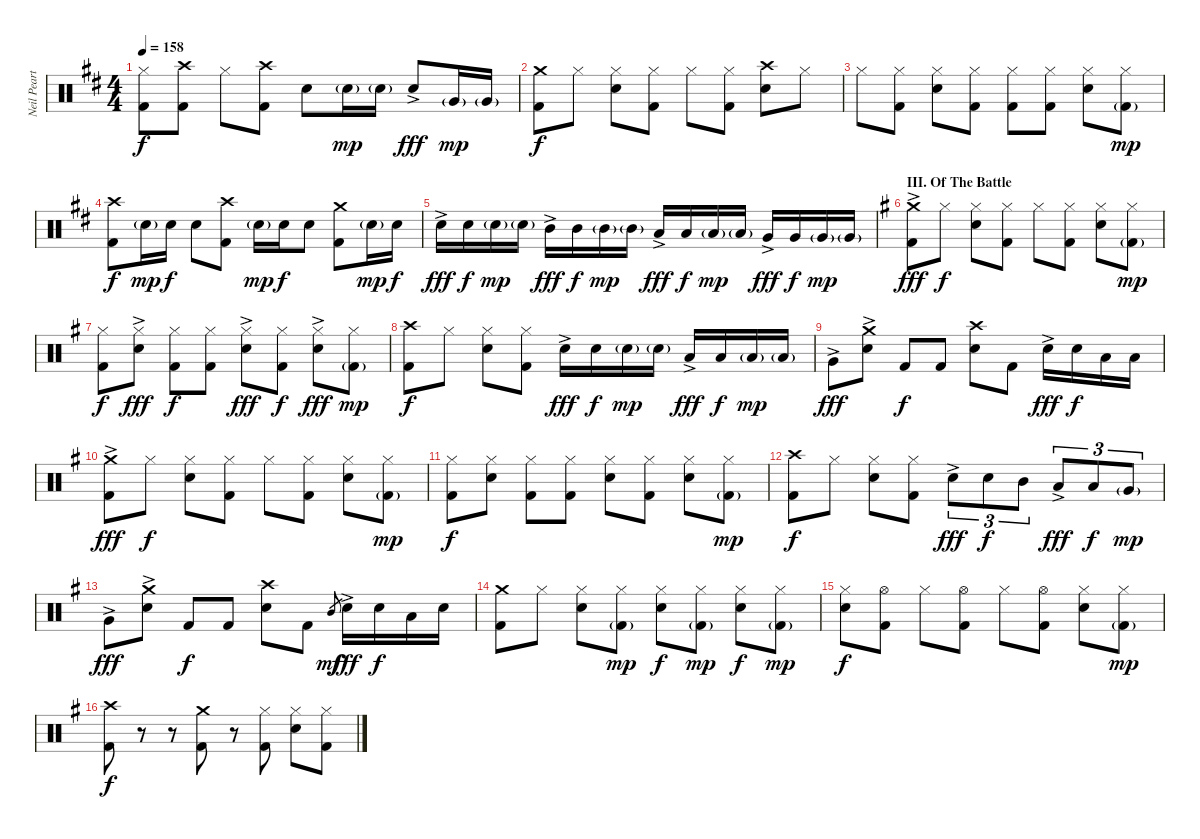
\track ("Neil Peart (drums)" "Neil Peart") {instrument percussion}
\staff {score}
\articulation defaults
\ts (4 4)
\tempo 158
\clef neutral
\ks d
("Hi-Hat (closed)" "Kick (hit) 2").8{dy f} ("Crash high (hit)" "Kick (hit) 2").8 "Hi-Hat (closed)".8 ("Crash high (hit)" "Kick (hit) 2").8 "Electric Snare (hit)".8 "Electric Snare (hit)"{g}.16{dy mp} "Electric Snare (hit)"{g}.16 "Electric Snare (hit)"{ac}.8{dy fff} "Very Low Tom (hit)"{g}.16{dy mp} "Very Low Tom (hit)"{g}.16 |
("Crash medium (hit)" "Kick (hit) 2").8{dy f} "Hi-Hat (closed)".8 ("Hi-Hat (closed)" "Electric Snare (hit)").8 ("Hi-Hat (closed)" "Kick (hit) 2").8 "Hi-Hat (closed)".8 ("Hi-Hat (closed)" "Kick (hit) 2").8 ("Crash high (hit)" "Electric Snare (hit)").8 "Hi-Hat (closed)".8 |
"Hi-Hat (closed)".8 ("Hi-Hat (closed)" "Kick (hit) 2").8 ("Hi-Hat (closed)" "Electric Snare (hit)").8 ("Hi-Hat (closed)" "Kick (hit) 2").8 ("Hi-Hat (closed)" "Kick (hit) 2").8 ("Hi-Hat (closed)" "Kick (hit) 2").8 ("Hi-Hat (closed)" "Electric Snare (hit)").8 ("Hi-Hat (closed)" "Kick (hit) 2"{g}).8{dy mp} |
("Crash high (hit)" "Kick (hit) 2").8{dy f} "Electric Snare (hit)"{g}.16{dy mp} "Electric Snare (hit)".16{dy f} "Electric Snare (hit)".8 ("Crash high (hit)" "Kick (hit) 2").8 "Electric Snare (hit)"{g}.16{dy mp} "Electric Snare (hit)".16{dy f} "Electric Snare (hit)".8 ("Crash medium (hit)" "Kick (hit) 2").8 "Electric Snare (hit)"{g}.16{dy mp} "Electric Snare (hit)".16{dy f} |
"Electric Snare (hit)"{ac}.16{dy fff} "Electric Snare (hit)".16{dy f} "Electric Snare (hit)"{g}.16{dy mp} "Electric Snare (hit)"{g}.16 "Mid Tom (hit)"{ac}.16{dy fff} "Mid Tom (hit)".16{dy f} "Mid Tom (hit)"{g}.16{dy mp} "Mid Tom (hit)"{g}.16 "Low Tom (hit)"{ac}.16{dy fff} "Low Tom (hit)".16{dy f} "Low Tom (hit)"{g}.16{dy mp} "Low Tom (hit)"{g}.16 "Very Low Tom (hit)"{ac}.16{dy fff} "Very Low Tom (hit)".16{dy f} "Very Low Tom (hit)"{g}.16{dy mp} "Very Low Tom (hit)"{g}.16 |
\section ("" "III. Of The Battle")
\ks eminor
("Crash medium (hit)"{ac} "Kick (hit) 2").8{dy fff} "Hi-Hat (closed)".8{dy f} ("Hi-Hat (closed)" "Electric Snare (hit)").8 ("Hi-Hat (closed)" "Kick (hit) 2").8 "Hi-Hat (closed)".8 ("Hi-Hat (closed)" "Kick (hit) 2").8 ("Hi-Hat (closed)" "Electric Snare (hit)").8 ("Hi-Hat (closed)" "Kick (hit) 2"{g}).8{dy mp} |
("Hi-Hat (closed)" "Kick (hit) 2").8{dy f} ("Hi-Hat (closed)" "Electric Snare (hit)"{ac}).8{dy fff} ("Hi-Hat (closed)" "Kick (hit) 2").8{dy f} ("Hi-Hat (closed)" "Kick (hit) 2").8 ("Hi-Hat (closed)" "Electric Snare (hit)"{ac}).8{dy fff} ("Hi-Hat (closed)" "Kick (hit) 2").8{dy f} ("Hi-Hat (closed)" "Electric Snare (hit)"{ac}).8{dy fff} ("Hi-Hat (closed)" "Kick (hit) 2"{g}).8{dy mp} |
("Crash high (hit)" "Kick (hit) 2").8{dy f} "Hi-Hat (closed)".8 ("Hi-Hat (closed)" "Electric Snare (hit)").8 ("Hi-Hat (closed)" "Kick (hit) 2").8 "Electric Snare (hit)"{ac}.16{dy fff} "Electric Snare (hit)".16{dy f} "Electric Snare (hit)"{g}.16{dy mp} "Electric Snare (hit)"{g}.16 "Low Tom (hit)"{ac}.16{dy fff} "Low Tom (hit)".16{dy f} "Low Tom (hit)"{g}.16{dy mp} "Low Tom (hit)"{g}.16 |
"Very Low Tom (hit)"{ac}.8{dy fff} ("Crash medium (hit)" "Electric Snare (hit)"{ac}).8 "Kick (hit) 2".8{dy f} "Kick (hit) 2".8 ("Crash high (hit)" "Electric Snare (hit)").8 "Kick (hit) 2".8 "Electric Snare (hit)"{ac}.16{dy fff} "Electric Snare (hit)".16{dy f} "Low Tom (hit)".16 "Low Tom (hit)".16 |
("Crash medium (hit)"{ac} "Kick (hit) 2").8{dy fff} "Hi-Hat (closed)".8{dy f} ("Hi-Hat (closed)" "Electric Snare (hit)").8 ("Hi-Hat (closed)" "Kick (hit) 2").8 "Hi-Hat (closed)".8 ("Hi-Hat (closed)" "Kick (hit) 2").8 ("Hi-Hat (closed)" "Electric Snare (hit)").8 ("Hi-Hat (closed)" "Kick (hit) 2"{g}).8{dy mp} |
("Hi-Hat (closed)" "Kick (hit) 2").8{dy f} ("Hi-Hat (closed)" "Electric Snare (hit)").8 ("Hi-Hat (closed)" "Kick (hit) 2").8 ("Hi-Hat (closed)" "Kick (hit) 2").8 ("Hi-Hat (closed)" "Electric Snare (hit)").8 ("Hi-Hat (closed)" "Kick (hit) 2").8 ("Hi-Hat (closed)" "Electric Snare (hit)").8 ("Hi-Hat (closed)" "Kick (hit) 2"{g}).8{dy mp} |
("Crash high (hit)" "Kick (hit) 2").8{dy f} "Hi-Hat (closed)".8 ("Hi-Hat (closed)" "Electric Snare (hit)").8 ("Hi-Hat (closed)" "Kick (hit) 2").8 "Electric Snare (hit)"{ac}.8{tu (3 2) dy fff} "Electric Snare (hit)".8{tu (3 2) dy f} "Mid Tom (hit)".8{tu (3 2)} "Low Tom (hit)"{ac}.8{tu (3 2) dy fff} "Low Tom (hit)".8{tu (3 2) dy f} "Very Low Tom (hit)"{g}.8{tu (3 2) dy mp} |
"Very Low Tom (hit)"{ac}.8{dy fff} ("Crash medium (hit)" "Electric Snare (hit)"{ac}).8 "Kick (hit) 2".8{dy f} "Kick (hit) 2".8 ("Crash high (hit)" "Electric Snare (hit)").8 "Kick (hit) 2".8 "Mid Tom (hit)".8{gr dy mf} "Electric Snare (hit)"{ac}.16{dy fff} "Electric Snare (hit)".16{dy f} "Low Tom (hit)".16 "Electric Snare (hit)".16 |
("Crash medium (hit)" "Kick (hit) 2").8 "Hi-Hat (closed)".8 ("Hi-Hat (closed)" "Electric Snare (hit)").8 ("Hi-Hat (closed)" "Kick (hit) 2"{g}).8{dy mp} ("Hi-Hat (closed)" "Electric Snare (hit)").8{dy f} ("Hi-Hat (closed)" "Kick (hit) 2"{g}).8{dy mp} ("Hi-Hat (closed)" "Electric Snare (hit)").8{dy f} ("Hi-Hat (closed)" "Kick (hit) 2"{g}).8{dy mp} |
("Hi-Hat (closed)" "Electric Snare (hit)").8{dy f} ("Hi-Hat (open)" "Kick (hit) 2").8 "Hi-Hat (closed)".8 ("Hi-Hat (open)" "Kick (hit) 2").8 "Hi-Hat (closed)".8 ("Hi-Hat (open)" "Kick (hit) 2").8 ("Hi-Hat (closed)" "Electric Snare (hit)").8 ("Hi-Hat (closed)" "Kick (hit) 2"{g}).8{dy mp} |
("Crash high (hit)" "Kick (hit) 2").8{dy f} r.8 r.8 ("Crash medium (hit)" "Kick (hit) 2").8 r.8 ("Hi-Hat (closed)" "Kick (hit) 2").8 ("Hi-Hat (closed)" "Electric Snare (hit)").8 ("Hi-Hat (closed)" "Kick (hit) 2").8
